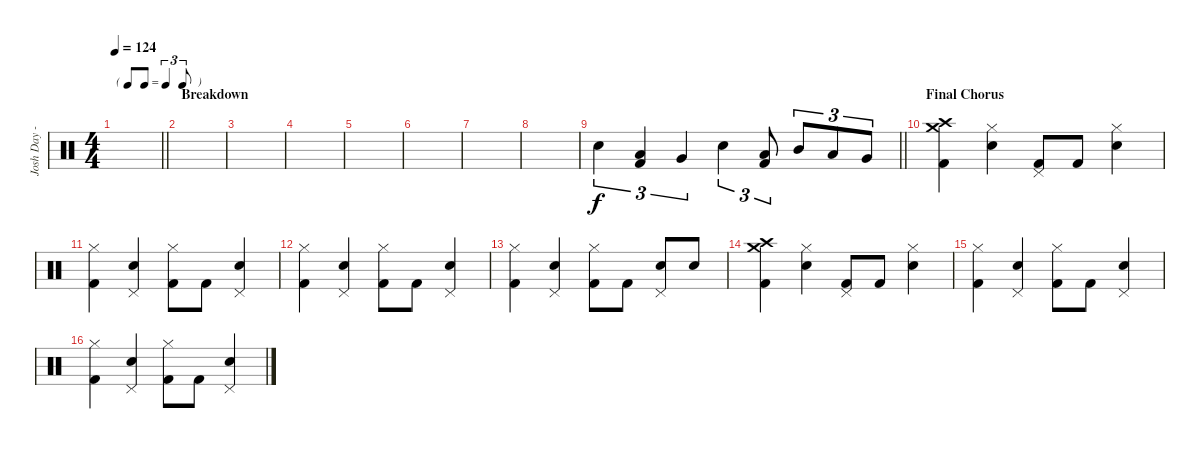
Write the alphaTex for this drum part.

\track ("Josh Day - Drums/Percussion" "Josh Day -") {instrument percussion}
\staff {score}
\articulation defaults
\ts (4 4)
\tf triplet8th
\tempo 124
\clef neutral
\barLineRight lightlight
\ks c
|
\section ("" "Breakdown")
|
|
|
|
|
|
|
\barLineRight lightlight "Snare (hit) 2".4{tu (3 2)}
("Low Tom (hit)" "Kick (hit) 2").4{tu (3 2)} "Very Low Tom (hit)".4{tu (3 2)} "Snare (hit) 2".4{tu (3 2)} ("Low Floor Tom (hit)" "Kick (hit) 2").8{tu (3 2)} "Mid Tom (hit)".8{tu (3 2)} "Low Tom (hit)".8{tu (3 2)} "Very Low Tom (hit)".8{tu (3 2)} |
\section ("" "Final Chorus")
("Crash medium (hit)" "Crash high (hit)" "Kick (hit) 2").4 ("Snare (hit) 2" "Hi-Hat (closed)").4 ("Pedal Hi-Hat (hit)" "Kick (hit) 2").8 "Kick (hit) 2".8 ("Snare (hit) 2" "Hi-Hat (closed)").4 |
("Hi-Hat (closed)" "Kick (hit) 2").4 ("Snare (hit) 2" "Pedal Hi-Hat (hit)").4 ("Hi-Hat (closed)" "Kick (hit) 2").8 "Kick (hit) 2".8 ("Snare (hit) 2" "Pedal Hi-Hat (hit)").4 |
("Hi-Hat (closed)" "Kick (hit) 2").4 ("Snare (hit) 2" "Pedal Hi-Hat (hit)").4 ("Hi-Hat (closed)" "Kick (hit) 2").8 "Kick (hit) 2".8 ("Snare (hit) 2" "Pedal Hi-Hat (hit)").4 |
("Hi-Hat (closed)" "Kick (hit) 2").4 ("Snare (hit) 2" "Pedal Hi-Hat (hit)").4 ("Hi-Hat (closed)" "Kick (hit) 2").8 "Kick (hit) 2".8 ("Snare (hit) 2" "Pedal Hi-Hat (hit)").8 "Snare (hit) 2".8 |
("Crash medium (hit)" "Crash high (hit)" "Kick (hit) 2").4 ("Snare (hit) 2" "Hi-Hat (closed)").4 ("Pedal Hi-Hat (hit)" "Kick (hit) 2").8 "Kick (hit) 2".8 ("Snare (hit) 2" "Hi-Hat (closed)").4 |
("Hi-Hat (closed)" "Kick (hit) 2").4 ("Snare (hit) 2" "Pedal Hi-Hat (hit)").4 ("Hi-Hat (closed)" "Kick (hit) 2").8 "Kick (hit) 2".8 ("Snare (hit) 2" "Pedal Hi-Hat (hit)").4 |
("Hi-Hat (closed)" "Kick (hit) 2").4 ("Snare (hit) 2" "Pedal Hi-Hat (hit)").4 ("Hi-Hat (closed)" "Kick (hit) 2").8 "Kick (hit) 2".8 ("Snare (hit) 2" "Pedal Hi-Hat (hit)").4
